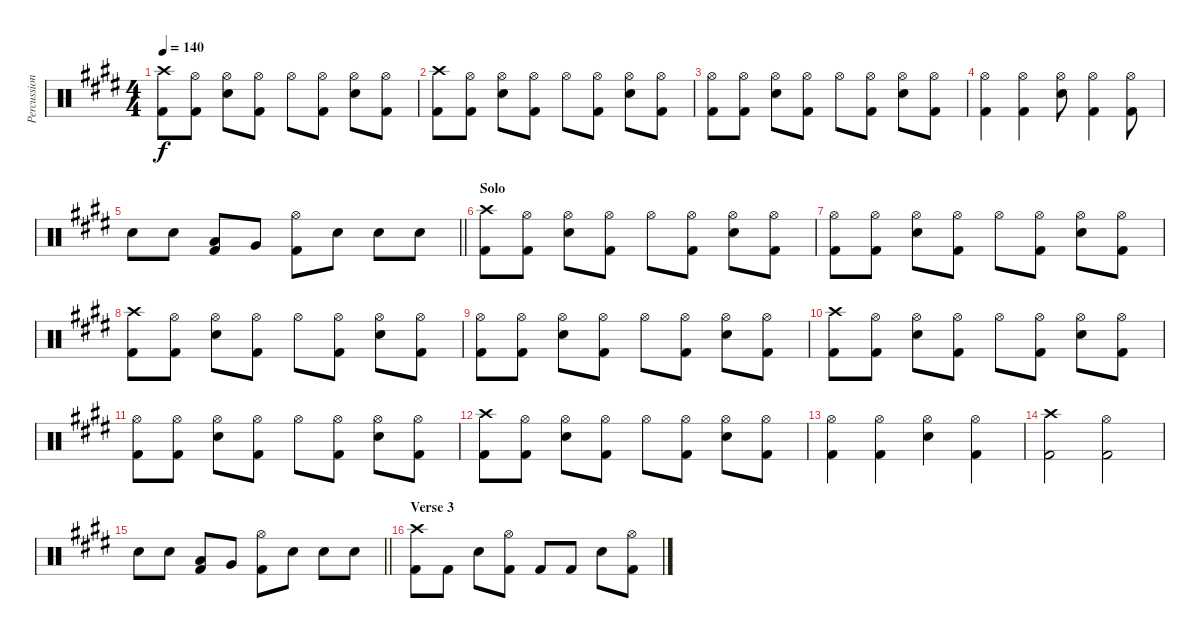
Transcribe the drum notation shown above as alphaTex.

\track ("Percussion" "Percussion") {instrument percussion}
\staff {score}
\articulation defaults
\ts (4 4)
\tempo 140
\clef neutral
\ks e
("Crash high (hit)" "Kick (hit) 2").8{dy f} ("Hi-Hat (open)" "Kick (hit) 2").8 ("Hi-Hat (open)" "Electric Snare (hit)").8 ("Hi-Hat (open)" "Kick (hit) 2").8 "Hi-Hat (open)".8 ("Hi-Hat (open)" "Kick (hit) 2").8 ("Hi-Hat (open)" "Electric Snare (hit)").8 ("Hi-Hat (open)" "Kick (hit) 2").8 |
("Crash high (hit)" "Kick (hit) 2").8 ("Hi-Hat (open)" "Kick (hit) 2").8 ("Hi-Hat (open)" "Electric Snare (hit)").8 ("Hi-Hat (open)" "Kick (hit) 2").8 "Hi-Hat (open)".8 ("Hi-Hat (open)" "Kick (hit) 2").8 ("Hi-Hat (open)" "Electric Snare (hit)").8 ("Hi-Hat (open)" "Kick (hit) 2").8 |
("Hi-Hat (open)" "Kick (hit) 2").8 ("Hi-Hat (open)" "Kick (hit) 2").8 ("Hi-Hat (open)" "Electric Snare (hit)").8 ("Hi-Hat (open)" "Kick (hit) 2").8 "Hi-Hat (open)".8 ("Hi-Hat (open)" "Kick (hit) 2").8 ("Hi-Hat (open)" "Electric Snare (hit)").8 ("Hi-Hat (open)" "Kick (hit) 2").8 |
("Hi-Hat (open)" "Kick (hit) 2").4 ("Hi-Hat (open)" "Kick (hit) 2").4 ("Hi-Hat (open)" "Electric Snare (hit)").8 ("Hi-Hat (open)" "Kick (hit) 2").4 ("Hi-Hat (open)" "Kick (hit) 2").8 |
\barLineRight lightlight "Electric Snare (hit)".8 "Electric Snare (hit)".8
("Low Tom (hit)" "Kick (hit) 2").8 "Very Low Tom (hit)".8 ("Hi-Hat (open)" "Kick (hit) 2").8 "Electric Snare (hit)".8 "Electric Snare (hit)".8 "Electric Snare (hit)".8 |
\section ("" "Solo")
("Crash high (hit)" "Kick (hit) 2").8 ("Hi-Hat (open)" "Kick (hit) 2").8 ("Hi-Hat (open)" "Electric Snare (hit)").8 ("Hi-Hat (open)" "Kick (hit) 2").8 "Hi-Hat (open)".8 ("Hi-Hat (open)" "Kick (hit) 2").8 ("Hi-Hat (open)" "Electric Snare (hit)").8 ("Hi-Hat (open)" "Kick (hit) 2").8 |
("Hi-Hat (open)" "Kick (hit) 2").8 ("Hi-Hat (open)" "Kick (hit) 2").8 ("Hi-Hat (open)" "Electric Snare (hit)").8 ("Hi-Hat (open)" "Kick (hit) 2").8 "Hi-Hat (open)".8 ("Hi-Hat (open)" "Kick (hit) 2").8 ("Hi-Hat (open)" "Electric Snare (hit)").8 ("Hi-Hat (open)" "Kick (hit) 2").8 |
("Crash high (hit)" "Kick (hit) 2").8 ("Hi-Hat (open)" "Kick (hit) 2").8 ("Hi-Hat (open)" "Electric Snare (hit)").8 ("Hi-Hat (open)" "Kick (hit) 2").8 "Hi-Hat (open)".8 ("Hi-Hat (open)" "Kick (hit) 2").8 ("Hi-Hat (open)" "Electric Snare (hit)").8 ("Hi-Hat (open)" "Kick (hit) 2").8 |
("Hi-Hat (open)" "Kick (hit) 2").8 ("Hi-Hat (open)" "Kick (hit) 2").8 ("Hi-Hat (open)" "Electric Snare (hit)").8 ("Hi-Hat (open)" "Kick (hit) 2").8 "Hi-Hat (open)".8 ("Hi-Hat (open)" "Kick (hit) 2").8 ("Hi-Hat (open)" "Electric Snare (hit)").8 ("Hi-Hat (open)" "Kick (hit) 2").8 |
("Crash high (hit)" "Kick (hit) 2").8 ("Hi-Hat (open)" "Kick (hit) 2").8 ("Hi-Hat (open)" "Electric Snare (hit)").8 ("Hi-Hat (open)" "Kick (hit) 2").8 "Hi-Hat (open)".8 ("Hi-Hat (open)" "Kick (hit) 2").8 ("Hi-Hat (open)" "Electric Snare (hit)").8 ("Hi-Hat (open)" "Kick (hit) 2").8 |
("Hi-Hat (open)" "Kick (hit) 2").8 ("Hi-Hat (open)" "Kick (hit) 2").8 ("Hi-Hat (open)" "Electric Snare (hit)").8 ("Hi-Hat (open)" "Kick (hit) 2").8 "Hi-Hat (open)".8 ("Hi-Hat (open)" "Kick (hit) 2").8 ("Hi-Hat (open)" "Electric Snare (hit)").8 ("Hi-Hat (open)" "Kick (hit) 2").8 |
("Crash high (hit)" "Kick (hit) 2").8 ("Hi-Hat (open)" "Kick (hit) 2").8 ("Hi-Hat (open)" "Electric Snare (hit)").8 ("Hi-Hat (open)" "Kick (hit) 2").8 "Hi-Hat (open)".8 ("Hi-Hat (open)" "Kick (hit) 2").8 ("Hi-Hat (open)" "Electric Snare (hit)").8 ("Hi-Hat (open)" "Kick (hit) 2").8 |
("Hi-Hat (open)" "Kick (hit) 2").4 ("Hi-Hat (open)" "Kick (hit) 2").4 ("Hi-Hat (open)" "Electric Snare (hit)").4 ("Hi-Hat (open)" "Kick (hit) 2").4 |
("Crash high (hit)" "Kick (hit) 2").2 ("Hi-Hat (open)" "Kick (hit) 2").2 |
\barLineRight lightlight "Electric Snare (hit)".8 "Electric Snare (hit)".8
("Low Tom (hit)" "Kick (hit) 2").8 "Very Low Tom (hit)".8 ("Hi-Hat (open)" "Kick (hit) 2").8 "Electric Snare (hit)".8 "Electric Snare (hit)".8 "Electric Snare (hit)".8 |
\section ("" "Verse 3")
("Crash high (hit)" "Kick (hit) 2").8 "Kick (hit) 2".8 "Electric Snare (hit)".8 ("Hi-Hat (open)" "Kick (hit) 2").8 "Kick (hit) 2".8 "Kick (hit) 2".8 "Electric Snare (hit)".8 ("Hi-Hat (open)" "Kick (hit) 2").8
